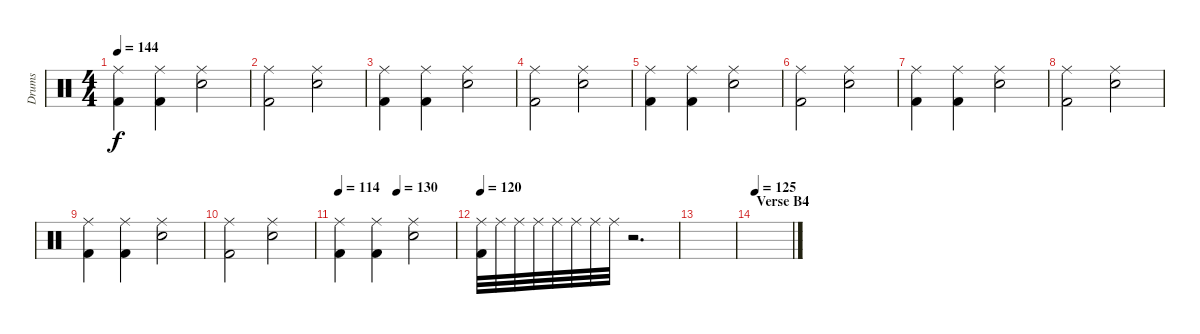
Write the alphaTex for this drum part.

\track ("Drums" "Drums") {instrument percussion}
\staff {score}
\articulation defaults
\ts (4 4)
\tempo 144
\clef neutral
\ks c
("Ride (middle)" "Kick (hit) 2").4{dy f} ("Ride (middle)" "Kick (hit) 2").4 ("Snare (hit) 2" "Ride (middle)").2 |
("Ride (middle)" "Kick (hit) 2").2 ("Snare (hit) 2" "Ride (middle)").2 |
("Ride (middle)" "Kick (hit) 2").4 ("Ride (middle)" "Kick (hit) 2").4 ("Snare (hit) 2" "Ride (middle)").2 |
("Ride (middle)" "Kick (hit) 2").2 ("Snare (hit) 2" "Ride (middle)").2 |
("Ride (middle)" "Kick (hit) 2").4 ("Ride (middle)" "Kick (hit) 2").4 ("Snare (hit) 2" "Ride (middle)").2 |
("Ride (middle)" "Kick (hit) 2").2 ("Snare (hit) 2" "Ride (middle)").2 |
("Ride (middle)" "Kick (hit) 2").4 ("Ride (middle)" "Kick (hit) 2").4 ("Snare (hit) 2" "Ride (middle)").2 |
("Ride (middle)" "Kick (hit) 2").2 ("Snare (hit) 2" "Ride (middle)").2 |
("Ride (middle)" "Kick (hit) 2").4 ("Ride (middle)" "Kick (hit) 2").4 ("Snare (hit) 2" "Ride (middle)").2 |
("Ride (middle)" "Kick (hit) 2").2 ("Snare (hit) 2" "Ride (middle)").2 |
\tempo 114
\tempo (130 0.5)
("Ride (middle)" "Kick (hit) 2").4 ("Ride (middle)" "Kick (hit) 2").4 ("Snare (hit) 2" "Ride (middle)").2 |
\tempo 120
("Ride (middle)" "Kick (hit) 2").32 "Ride (middle)".32 "Ride (middle)".32 "Ride (middle)".32 "Ride (middle)".32 "Ride (middle)".32 "Ride (middle)".32 "Ride (middle)".32 r.2{d} |
|
\section ("" "Verse B4")
\tempo 125
